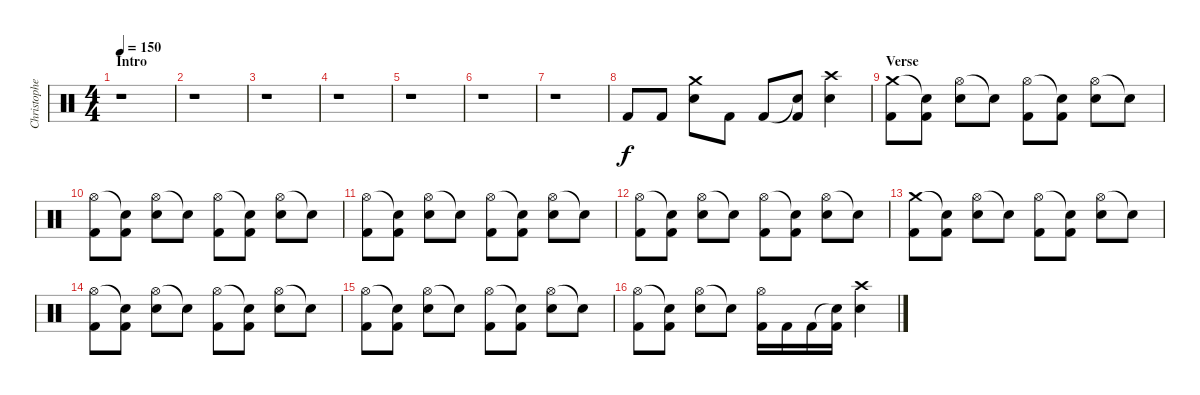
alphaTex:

\track ("Christopher Schneider" "Christophe") {instrument percussion}
\staff {score}
\articulation defaults
\ts (4 4)
\section ("" "Intro")
\tempo 150
\clef neutral
\ks c
r.1{dy f} |
r.1 |
r.1 |
r.1 |
r.1 |
r.1 |
r.1 |
"Kick (hit) 2".8 "Kick (hit) 2".8 ("Crash medium (hit)" "Electric Snare (hit)").8 "Kick (hit) 2".8 "Kick (hit) 2".8 ("Snare (hit)"{t} "Kick (hit) 2").8 ("Crash high (hit)" "Electric Snare (hit)").4 |
\section ("" "Verse")
("Crash medium (hit)" "Kick (hit) 2").8 ("Snare (hit)"{t} "Kick (hit) 2").8 ("Hi-Hat (open)" "Electric Snare (hit)").8 "Snare (hit)"{t}.8 ("Hi-Hat (open)" "Kick (hit) 2").8 ("Snare (hit)"{t} "Kick (hit) 2").8 ("Hi-Hat (open)" "Electric Snare (hit)").8 "Snare (hit)"{t}.8 |
("Hi-Hat (open)" "Kick (hit) 2").8 ("Snare (hit)"{t} "Kick (hit) 2").8 ("Hi-Hat (open)" "Electric Snare (hit)").8 "Snare (hit)"{t}.8 ("Hi-Hat (open)" "Kick (hit) 2").8 ("Snare (hit)"{t} "Kick (hit) 2").8 ("Hi-Hat (open)" "Electric Snare (hit)").8 "Snare (hit)"{t}.8 |
("Hi-Hat (open)" "Kick (hit) 2").8 ("Snare (hit)"{t} "Kick (hit) 2").8 ("Hi-Hat (open)" "Electric Snare (hit)").8 "Snare (hit)"{t}.8 ("Hi-Hat (open)" "Kick (hit) 2").8 ("Snare (hit)"{t} "Kick (hit) 2").8 ("Hi-Hat (open)" "Electric Snare (hit)").8 "Snare (hit)"{t}.8 |
("Hi-Hat (open)" "Kick (hit) 2").8 ("Snare (hit)"{t} "Kick (hit) 2").8 ("Hi-Hat (open)" "Electric Snare (hit)").8 "Snare (hit)"{t}.8 ("Hi-Hat (open)" "Kick (hit) 2").8 ("Snare (hit)"{t} "Kick (hit) 2").8 ("Hi-Hat (open)" "Electric Snare (hit)").8 "Snare (hit)"{t}.8 |
("Crash medium (hit)" "Kick (hit) 2").8 ("Snare (hit)"{t} "Kick (hit) 2").8 ("Hi-Hat (open)" "Electric Snare (hit)").8 "Snare (hit)"{t}.8 ("Hi-Hat (open)" "Kick (hit) 2").8 ("Snare (hit)"{t} "Kick (hit) 2").8 ("Hi-Hat (open)" "Electric Snare (hit)").8 "Snare (hit)"{t}.8 |
("Hi-Hat (open)" "Kick (hit) 2").8 ("Snare (hit)"{t} "Kick (hit) 2").8 ("Hi-Hat (open)" "Electric Snare (hit)").8 "Snare (hit)"{t}.8 ("Hi-Hat (open)" "Kick (hit) 2").8 ("Snare (hit)"{t} "Kick (hit) 2").8 ("Hi-Hat (open)" "Electric Snare (hit)").8 "Snare (hit)"{t}.8 |
("Hi-Hat (open)" "Kick (hit) 2").8 ("Snare (hit)"{t} "Kick (hit) 2").8 ("Hi-Hat (open)" "Electric Snare (hit)").8 "Snare (hit)"{t}.8 ("Hi-Hat (open)" "Kick (hit) 2").8 ("Snare (hit)"{t} "Kick (hit) 2").8 ("Hi-Hat (open)" "Electric Snare (hit)").8 "Snare (hit)"{t}.8 |
("Hi-Hat (open)" "Kick (hit) 2").8 ("Snare (hit)"{t} "Kick (hit) 2").8 ("Hi-Hat (open)" "Electric Snare (hit)").8 "Snare (hit)"{t}.8 ("Hi-Hat (open)" "Kick (hit) 2").16 "Kick (hit) 2".16 "Kick (hit) 2".16 ("Snare (hit)"{t} "Kick (hit) 2").16 ("Crash high (hit)" "Electric Snare (hit)").4
